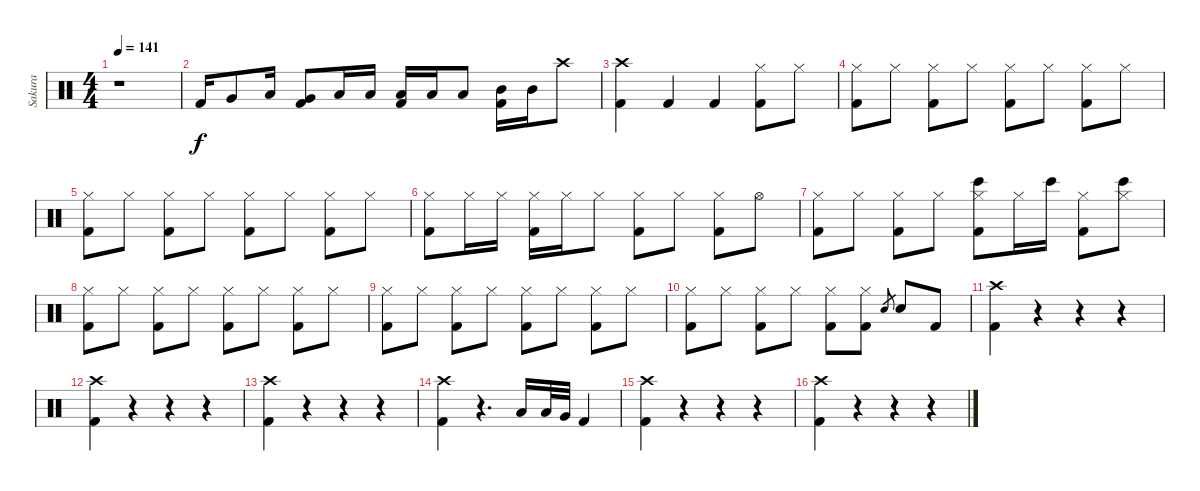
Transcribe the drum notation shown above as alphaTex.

\track ("Sakura" "Sakura") {instrument percussion}
\staff {score}
\articulation defaults
\ts (4 4)
\tempo 141
\clef neutral
\ks c
r.1{dy f} |
"Kick (hit) 2".16 "Very Low Tom (hit)".8 "Low Floor Tom (hit)".16 ("Very Low Tom (hit)" "Kick (hit) 2").8 "Low Tom (hit)".16 "Low Tom (hit)".16 ("Low Tom (hit)" "Kick (hit) 2").16 "Low Tom (hit)".16 "Low Tom (hit)".8 ("Mid Tom (hit)" "Kick (hit) 2").16 "Mid Tom (hit)".16 "Crash high (hit)".8 |
("Crash high (hit)" "Kick (hit) 2").4 "Kick (hit) 2".4 "Kick (hit) 2".4 ("Hi-Hat (closed)" "Kick (hit) 2").8 "Hi-Hat (closed)".8 |
("Hi-Hat (closed)" "Kick (hit) 2").8 "Hi-Hat (closed)".8 ("Hi-Hat (closed)" "Kick (hit) 2").8 "Hi-Hat (closed)".8 ("Hi-Hat (closed)" "Kick (hit) 2").8 "Hi-Hat (closed)".8 ("Hi-Hat (closed)" "Kick (hit) 2").8 "Hi-Hat (closed)".8 |
("Hi-Hat (closed)" "Kick (hit) 2").8 "Hi-Hat (closed)".8 ("Hi-Hat (closed)" "Kick (hit) 2").8 "Hi-Hat (closed)".8 ("Hi-Hat (closed)" "Kick (hit) 2").8 "Hi-Hat (closed)".8 ("Hi-Hat (closed)" "Kick (hit) 2").8 "Hi-Hat (closed)".8 |
("Hi-Hat (closed)" "Kick (hit) 2").8 "Hi-Hat (closed)".16 "Hi-Hat (closed)".16 ("Hi-Hat (closed)" "Kick (hit) 2").16 "Hi-Hat (closed)".16 "Hi-Hat (closed)".8 ("Hi-Hat (closed)" "Kick (hit) 2").8 "Hi-Hat (closed)".8 ("Hi-Hat (closed)" "Kick (hit) 2").8 "Hi-Hat (open)".8 |
("Hi-Hat (closed)" "Kick (hit) 2").8 "Hi-Hat (closed)".8 ("Hi-Hat (closed)" "Kick (hit) 2").8 "Hi-Hat (closed)".8 ("Bongo High (hit)" "Hi-Hat (closed)" "Kick (hit) 2").8 "Hi-Hat (closed)".16 "Bongo High (hit)".16 ("Hi-Hat (closed)" "Kick (hit) 2").8 ("Bongo High (hit)" "Hi-Hat (closed)").8 |
("Hi-Hat (closed)" "Kick (hit) 2").8 "Hi-Hat (closed)".8 ("Hi-Hat (closed)" "Kick (hit) 2").8 "Hi-Hat (closed)".8 ("Hi-Hat (closed)" "Kick (hit) 2").8 "Hi-Hat (closed)".8 ("Hi-Hat (closed)" "Kick (hit) 2").8 "Hi-Hat (closed)".8 |
("Hi-Hat (closed)" "Kick (hit) 2").8 "Hi-Hat (closed)".8 ("Hi-Hat (closed)" "Kick (hit) 2").8 "Hi-Hat (closed)".8 ("Hi-Hat (closed)" "Kick (hit) 2").8 "Hi-Hat (closed)".8 ("Hi-Hat (closed)" "Kick (hit) 2").8 "Hi-Hat (closed)".8 |
("Hi-Hat (closed)" "Kick (hit) 2").8 "Hi-Hat (closed)".8 ("Hi-Hat (closed)" "Kick (hit) 2").8 "Hi-Hat (closed)".8 ("Hi-Hat (closed)" "Kick (hit) 2").8 ("Hi-Hat (closed)" "Kick (hit) 2").8 "Snare (hit) 2".8{gr} "Snare (hit) 2".8 "Kick (hit) 2".8 |
("Crash high (hit)" "Kick (hit) 2").4 r.4 r.4 r.4 |
("Crash high (hit)" "Kick (hit) 2").4 r.4 r.4 r.4 |
("Crash high (hit)" "Kick (hit) 2").4 r.4 r.4 r.4 |
("Crash high (hit)" "Kick (hit) 2").4 r.4{d} "Low Tom (hit)".16 "Low Tom (hit)".32 "Very Low Tom (hit)".32 "Kick (hit) 2".4 |
("Crash high (hit)" "Kick (hit) 2").4 r.4 r.4 r.4 |
("Crash high (hit)" "Kick (hit) 2").4 r.4 r.4 r.4
